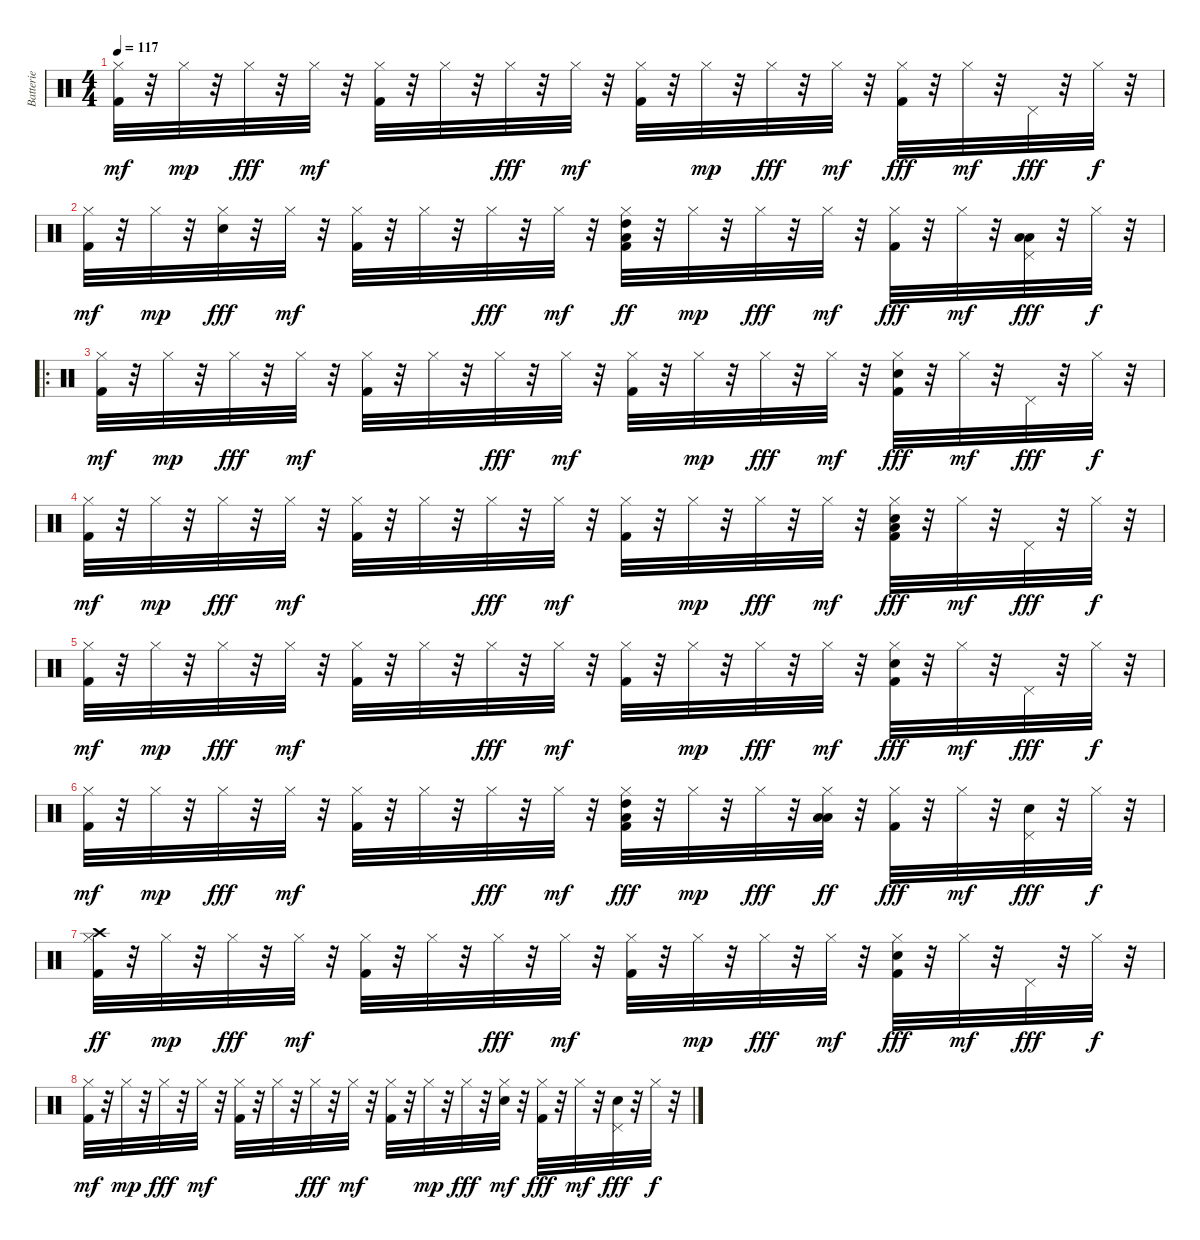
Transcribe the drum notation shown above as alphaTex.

\track ("Batterie" "Batterie") {instrument percussion}
\staff {score}
\articulation defaults
\ts (4 4)
\tempo 117
\clef neutral
\ks c
("Kick (hit) 2" "Hi-Hat (closed)").32{dy mf} r.32 "Hi-Hat (closed)".32{dy mp} r.32 "Hi-Hat (closed)".32{dy fff} r.32 "Hi-Hat (closed)".32{dy mf} r.32 ("Kick (hit) 2" "Hi-Hat (closed)").32 r.32 "Hi-Hat (closed)".32 r.32 "Hi-Hat (closed)".32{dy fff} r.32 "Hi-Hat (closed)".32{dy mf} r.32 ("Kick (hit) 2" "Hi-Hat (closed)").32 r.32 "Hi-Hat (closed)".32{dy mp} r.32 "Hi-Hat (closed)".32{dy fff} r.32 "Hi-Hat (closed)".32{dy mf} r.32 ("Kick (hit) 2" "Hi-Hat (closed)").32{dy fff} r.32 "Hi-Hat (closed)".32{dy mf} r.32 "Pedal Hi-Hat (hit)".32{dy fff} r.32 "Hi-Hat (closed)".32{dy f} r.32 |
("Kick (hit) 2" "Hi-Hat (closed)").32{dy mf} r.32 "Hi-Hat (closed)".32{dy mp} r.32 ("Electric Snare (hit)" "Hi-Hat (closed)").32{dy fff} r.32 "Hi-Hat (closed)".32{dy mf} r.32 ("Kick (hit) 2" "Hi-Hat (closed)").32 r.32 "Hi-Hat (closed)".32 r.32 "Hi-Hat (closed)".32{dy fff} r.32 "Hi-Hat (closed)".32{dy mf} r.32 ("Kick (hit) 2" "Hi-Hat (closed)" "Low Tom (hit)" "High Tom (hit)").32{dy ff} r.32 "Hi-Hat (closed)".32{dy mp} r.32 "Hi-Hat (closed)".32{dy fff} r.32 "Hi-Hat (closed)".32{dy mf} r.32 ("Kick (hit) 2" "Hi-Hat (closed)").32{dy fff} r.32 "Hi-Hat (closed)".32{dy mf} r.32 ("Pedal Hi-Hat (hit)" "Low Floor Tom (hit)" "Low Tom (hit)").32{dy fff} r.32 "Hi-Hat (closed)".32{dy f} r.32 |
\ro
("Kick (hit) 2" "Hi-Hat (closed)").32{dy mf} r.32 "Hi-Hat (closed)".32{dy mp} r.32 "Hi-Hat (closed)".32{dy fff} r.32 "Hi-Hat (closed)".32{dy mf} r.32 ("Kick (hit) 2" "Hi-Hat (closed)").32 r.32 "Hi-Hat (closed)".32 r.32 "Hi-Hat (closed)".32{dy fff} r.32 "Hi-Hat (closed)".32{dy mf} r.32 ("Kick (hit) 2" "Hi-Hat (closed)").32 r.32 "Hi-Hat (closed)".32{dy mp} r.32 "Hi-Hat (closed)".32{dy fff} r.32 "Hi-Hat (closed)".32{dy mf} r.32 ("Kick (hit) 2" "Electric Snare (hit)" "Hi-Hat (closed)").32{dy fff} r.32 "Hi-Hat (closed)".32{dy mf} r.32 "Pedal Hi-Hat (hit)".32{dy fff} r.32 "Hi-Hat (closed)".32{dy f} r.32 |
("Kick (hit) 2" "Hi-Hat (closed)").32{dy mf} r.32 "Hi-Hat (closed)".32{dy mp} r.32 "Hi-Hat (closed)".32{dy fff} r.32 "Hi-Hat (closed)".32{dy mf} r.32 ("Kick (hit) 2" "Hi-Hat (closed)").32 r.32 "Hi-Hat (closed)".32 r.32 "Hi-Hat (closed)".32{dy fff} r.32 "Hi-Hat (closed)".32{dy mf} r.32 ("Kick (hit) 2" "Hi-Hat (closed)").32 r.32 "Hi-Hat (closed)".32{dy mp} r.32 "Hi-Hat (closed)".32{dy fff} r.32 "Hi-Hat (closed)".32{dy mf} r.32 ("Kick (hit) 2" "Electric Snare (hit)" "Hi-Hat (closed)" "Low Floor Tom (hit)").32{dy fff} r.32 "Hi-Hat (closed)".32{dy mf} r.32 "Pedal Hi-Hat (hit)".32{dy fff} r.32 "Hi-Hat (closed)".32{dy f} r.32 |
("Kick (hit) 2" "Hi-Hat (closed)").32{dy mf} r.32 "Hi-Hat (closed)".32{dy mp} r.32 "Hi-Hat (closed)".32{dy fff} r.32 "Hi-Hat (closed)".32{dy mf} r.32 ("Kick (hit) 2" "Hi-Hat (closed)").32 r.32 "Hi-Hat (closed)".32 r.32 "Hi-Hat (closed)".32{dy fff} r.32 "Hi-Hat (closed)".32{dy mf} r.32 ("Kick (hit) 2" "Hi-Hat (closed)").32 r.32 "Hi-Hat (closed)".32{dy mp} r.32 "Hi-Hat (closed)".32{dy fff} r.32 "Hi-Hat (closed)".32{dy mf} r.32 ("Kick (hit) 2" "Electric Snare (hit)" "Hi-Hat (closed)").32{dy fff} r.32 "Hi-Hat (closed)".32{dy mf} r.32 "Pedal Hi-Hat (hit)".32{dy fff} r.32 "Hi-Hat (closed)".32{dy f} r.32 |
("Kick (hit) 2" "Hi-Hat (closed)").32{dy mf} r.32 "Hi-Hat (closed)".32{dy mp} r.32 "Hi-Hat (closed)".32{dy fff} r.32 "Hi-Hat (closed)".32{dy mf} r.32 ("Kick (hit) 2" "Hi-Hat (closed)").32 r.32 "Hi-Hat (closed)".32 r.32 "Hi-Hat (closed)".32{dy fff} r.32 "Hi-Hat (closed)".32{dy mf} r.32 ("Kick (hit) 2" "Hi-Hat (closed)" "High Tom (hit)" "Low Tom (hit)").32{dy fff} r.32 "Hi-Hat (closed)".32{dy mp} r.32 "Hi-Hat (closed)".32{dy fff} r.32 ("Hi-Hat (closed)" "Low Tom (hit)" "Low Floor Tom (hit)").32{dy ff} r.32 ("Kick (hit) 2" "Hi-Hat (closed)").32{dy fff} r.32 "Hi-Hat (closed)".32{dy mf} r.32 ("Electric Snare (hit)" "Pedal Hi-Hat (hit)").32{dy fff} r.32 "Hi-Hat (closed)".32{dy f} r.32 |
("Kick (hit) 2" "Hi-Hat (closed)" "Crash high (hit)").32{dy ff} r.32 "Hi-Hat (closed)".32{dy mp} r.32 "Hi-Hat (closed)".32{dy fff} r.32 "Hi-Hat (closed)".32{dy mf} r.32 ("Kick (hit) 2" "Hi-Hat (closed)").32 r.32 "Hi-Hat (closed)".32 r.32 "Hi-Hat (closed)".32{dy fff} r.32 "Hi-Hat (closed)".32{dy mf} r.32 ("Kick (hit) 2" "Hi-Hat (closed)").32 r.32 "Hi-Hat (closed)".32{dy mp} r.32 "Hi-Hat (closed)".32{dy fff} r.32 "Hi-Hat (closed)".32{dy mf} r.32 ("Kick (hit) 2" "Electric Snare (hit)" "Hi-Hat (closed)").32{dy fff} r.32 "Hi-Hat (closed)".32{dy mf} r.32 "Pedal Hi-Hat (hit)".32{dy fff} r.32 "Hi-Hat (closed)".32{dy f} r.32 |
("Kick (hit) 2" "Hi-Hat (closed)").32{dy mf} r.32 "Hi-Hat (closed)".32{dy mp} r.32 "Hi-Hat (closed)".32{dy fff} r.32 "Hi-Hat (closed)".32{dy mf} r.32 ("Kick (hit) 2" "Hi-Hat (closed)").32 r.32 "Hi-Hat (closed)".32 r.32 "Hi-Hat (closed)".32{dy fff} r.32 "Hi-Hat (closed)".32{dy mf} r.32 ("Kick (hit) 2" "Hi-Hat (closed)").32 r.32 "Hi-Hat (closed)".32{dy mp} r.32 "Hi-Hat (closed)".32{dy fff} r.32 ("Electric Snare (hit)" "Hi-Hat (closed)").32{dy mf} r.32 ("Kick (hit) 2" "Hi-Hat (closed)").32{dy fff} r.32 "Hi-Hat (closed)".32{dy mf} r.32 ("Electric Snare (hit)" "Pedal Hi-Hat (hit)").32{dy fff} r.32 "Hi-Hat (closed)".32{dy f} r.32
